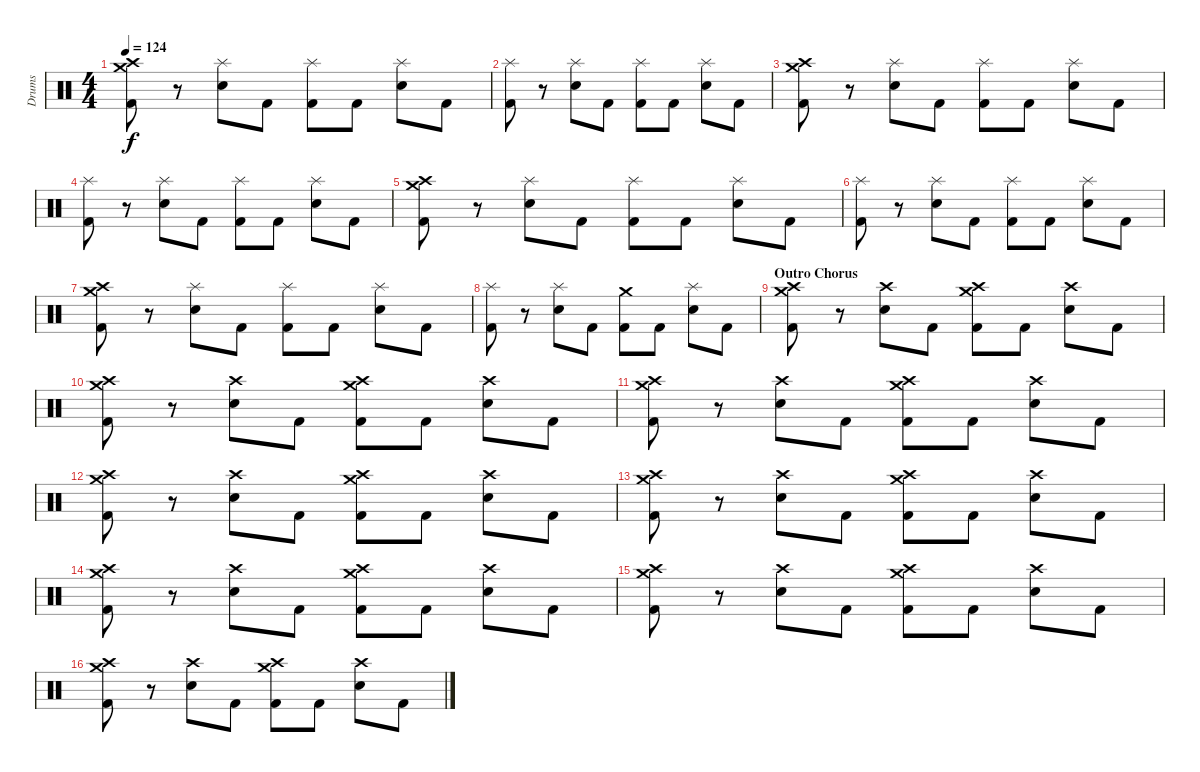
\track ("Drums" "Drums") {instrument percussion}
\staff {score}
\articulation defaults
\ts (4 4)
\tempo 124
\clef neutral
\ks c
("Crash medium (hit)" "Crash high (hit)" "Kick (hit) 2").8{dy f} r.8 ("Splash (hit)" "Snare (hit) 2").8 "Kick (hit) 2".8 ("Splash (hit)" "Kick (hit) 2").8 "Kick (hit) 2".8 ("Splash (hit)" "Snare (hit) 2").8 "Kick (hit) 2".8 |
("Splash (hit)" "Kick (hit) 2").8 r.8 ("Splash (hit)" "Snare (hit) 2").8 "Kick (hit) 2".8 ("Splash (hit)" "Kick (hit) 2").8 "Kick (hit) 2".8 ("Splash (hit)" "Snare (hit) 2").8 "Kick (hit) 2".8 |
("Crash medium (hit)" "Crash high (hit)" "Kick (hit) 2").8 r.8 ("Splash (hit)" "Snare (hit) 2").8 "Kick (hit) 2".8 ("Splash (hit)" "Kick (hit) 2").8 "Kick (hit) 2".8 ("Splash (hit)" "Snare (hit) 2").8 "Kick (hit) 2".8 |
("Splash (hit)" "Kick (hit) 2").8 r.8 ("Splash (hit)" "Snare (hit) 2").8 "Kick (hit) 2".8 ("Splash (hit)" "Kick (hit) 2").8 "Kick (hit) 2".8 ("Splash (hit)" "Snare (hit) 2").8 "Kick (hit) 2".8 |
("Crash medium (hit)" "Crash high (hit)" "Kick (hit) 2").8 r.8 ("Splash (hit)" "Snare (hit) 2").8 "Kick (hit) 2".8 ("Splash (hit)" "Kick (hit) 2").8 "Kick (hit) 2".8 ("Splash (hit)" "Snare (hit) 2").8 "Kick (hit) 2".8 |
("Splash (hit)" "Kick (hit) 2").8 r.8 ("Splash (hit)" "Snare (hit) 2").8 "Kick (hit) 2".8 ("Splash (hit)" "Kick (hit) 2").8 "Kick (hit) 2".8 ("Splash (hit)" "Snare (hit) 2").8 "Kick (hit) 2".8 |
("Crash medium (hit)" "Crash high (hit)" "Kick (hit) 2").8 r.8 ("Splash (hit)" "Snare (hit) 2").8 "Kick (hit) 2".8 ("Splash (hit)" "Kick (hit) 2").8 "Kick (hit) 2".8 ("Splash (hit)" "Snare (hit) 2").8 "Kick (hit) 2".8 |
("Splash (hit)" "Kick (hit) 2").8 r.8 ("Splash (hit)" "Snare (hit) 2").8 "Kick (hit) 2".8 ("Crash medium (hit)" "Kick (hit) 2").8 "Kick (hit) 2".8 ("Splash (hit)" "Snare (hit) 2").8 "Kick (hit) 2".8 |
\section ("" "Outro Chorus")
("Crash medium (hit)" "Crash high (hit)" "Kick (hit) 2").8 r.8 ("Crash high (hit)" "Snare (hit) 2").8 "Kick (hit) 2".8 ("Crash high (hit)" "Crash medium (hit)" "Kick (hit) 2").8 "Kick (hit) 2".8 ("Crash high (hit)" "Snare (hit) 2").8 "Kick (hit) 2".8 |
("Crash medium (hit)" "Crash high (hit)" "Kick (hit) 2").8 r.8 ("Crash high (hit)" "Snare (hit) 2").8 "Kick (hit) 2".8 ("Crash high (hit)" "Crash medium (hit)" "Kick (hit) 2").8 "Kick (hit) 2".8 ("Crash high (hit)" "Snare (hit) 2").8 "Kick (hit) 2".8 |
("Crash medium (hit)" "Crash high (hit)" "Kick (hit) 2").8 r.8 ("Crash high (hit)" "Snare (hit) 2").8 "Kick (hit) 2".8 ("Crash high (hit)" "Crash medium (hit)" "Kick (hit) 2").8 "Kick (hit) 2".8 ("Crash high (hit)" "Snare (hit) 2").8 "Kick (hit) 2".8 |
("Crash medium (hit)" "Crash high (hit)" "Kick (hit) 2").8 r.8 ("Crash high (hit)" "Snare (hit) 2").8 "Kick (hit) 2".8 ("Crash high (hit)" "Crash medium (hit)" "Kick (hit) 2").8 "Kick (hit) 2".8 ("Crash high (hit)" "Snare (hit) 2").8 "Kick (hit) 2".8 |
("Crash medium (hit)" "Crash high (hit)" "Kick (hit) 2").8 r.8 ("Crash high (hit)" "Snare (hit) 2").8 "Kick (hit) 2".8 ("Crash high (hit)" "Crash medium (hit)" "Kick (hit) 2").8 "Kick (hit) 2".8 ("Crash high (hit)" "Snare (hit) 2").8 "Kick (hit) 2".8 |
("Crash medium (hit)" "Crash high (hit)" "Kick (hit) 2").8 r.8 ("Crash high (hit)" "Snare (hit) 2").8 "Kick (hit) 2".8 ("Crash high (hit)" "Crash medium (hit)" "Kick (hit) 2").8 "Kick (hit) 2".8 ("Crash high (hit)" "Snare (hit) 2").8 "Kick (hit) 2".8 |
("Crash medium (hit)" "Crash high (hit)" "Kick (hit) 2").8 r.8 ("Crash high (hit)" "Snare (hit) 2").8 "Kick (hit) 2".8 ("Crash high (hit)" "Crash medium (hit)" "Kick (hit) 2").8 "Kick (hit) 2".8 ("Crash high (hit)" "Snare (hit) 2").8 "Kick (hit) 2".8 |
("Crash medium (hit)" "Crash high (hit)" "Kick (hit) 2").8 r.8 ("Crash high (hit)" "Snare (hit) 2").8 "Kick (hit) 2".8 ("Crash high (hit)" "Crash medium (hit)" "Kick (hit) 2").8 "Kick (hit) 2".8 ("Crash high (hit)" "Snare (hit) 2").8 "Kick (hit) 2".8
